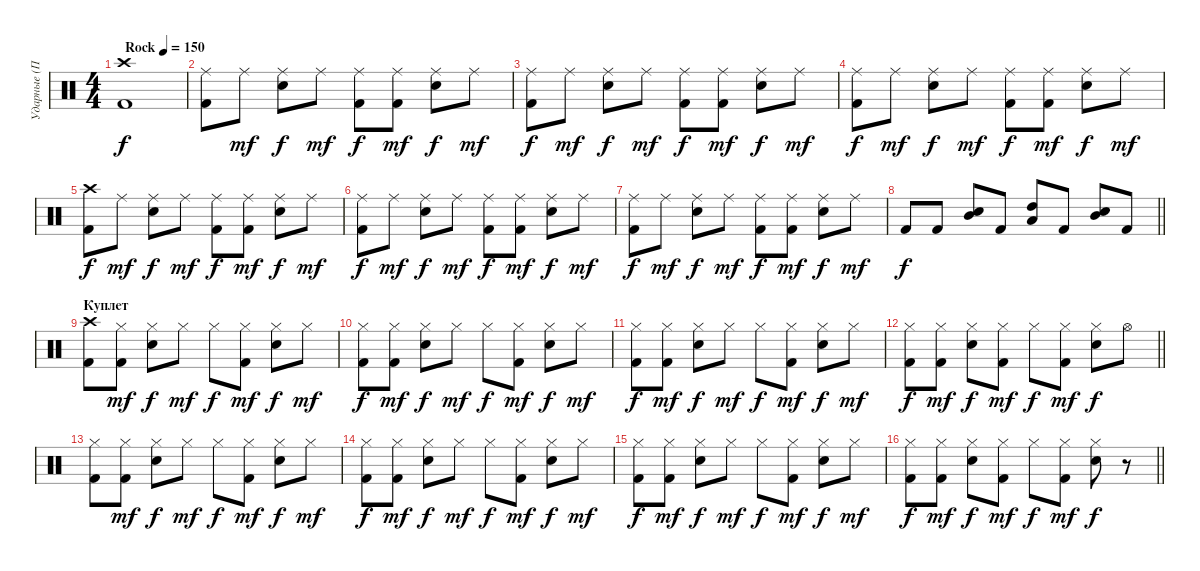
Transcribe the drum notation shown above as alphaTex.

\track ("Ударные (Поручик)" "Ударные (П") {instrument percussion}
\staff {score}
\articulation defaults
\ts (4 4)
\tempo (150 "Rock")
\clef neutral
\ks c
("Crash high (hit)" "Kick (hit) 2").1{dy f} |
("Ride (middle)" "Kick (hit) 2").8 "Ride (middle)".8{dy mf} ("Ride (middle)" "Snare (hit) 2").8{dy f} "Ride (middle)".8{dy mf} ("Ride (middle)" "Kick (hit) 2").8{dy f} ("Ride (middle)" "Kick (hit) 2").8{dy mf} ("Ride (middle)" "Snare (hit) 2").8{dy f} "Ride (middle)".8{dy mf} |
("Ride (middle)" "Kick (hit) 2").8{dy f} "Ride (middle)".8{dy mf} ("Ride (middle)" "Snare (hit) 2").8{dy f} "Ride (middle)".8{dy mf} ("Ride (middle)" "Kick (hit) 2").8{dy f} ("Ride (middle)" "Kick (hit) 2").8{dy mf} ("Ride (middle)" "Snare (hit) 2").8{dy f} "Ride (middle)".8{dy mf} |
("Ride (middle)" "Kick (hit) 2").8{dy f} "Ride (middle)".8{dy mf} ("Ride (middle)" "Snare (hit) 2").8{dy f} "Ride (middle)".8{dy mf} ("Ride (middle)" "Kick (hit) 2").8{dy f} ("Ride (middle)" "Kick (hit) 2").8{dy mf} ("Ride (middle)" "Snare (hit) 2").8{dy f} "Ride (middle)".8{dy mf} |
("Crash high (hit)" "Kick (hit) 2").8{dy f} "Ride (middle)".8{dy mf} ("Ride (middle)" "Snare (hit) 2").8{dy f} "Ride (middle)".8{dy mf} ("Ride (middle)" "Kick (hit) 2").8{dy f} ("Ride (middle)" "Kick (hit) 2").8{dy mf} ("Ride (middle)" "Snare (hit) 2").8{dy f} "Ride (middle)".8{dy mf} |
("Ride (middle)" "Kick (hit) 2").8{dy f} "Ride (middle)".8{dy mf} ("Ride (middle)" "Snare (hit) 2").8{dy f} "Ride (middle)".8{dy mf} ("Ride (middle)" "Kick (hit) 2").8{dy f} ("Ride (middle)" "Kick (hit) 2").8{dy mf} ("Ride (middle)" "Snare (hit) 2").8{dy f} "Ride (middle)".8{dy mf} |
("Ride (middle)" "Kick (hit) 2").8{dy f} "Ride (middle)".8{dy mf} ("Ride (middle)" "Snare (hit) 2").8{dy f} "Ride (middle)".8{dy mf} ("Ride (middle)" "Kick (hit) 2").8{dy f} ("Ride (middle)" "Kick (hit) 2").8{dy mf} ("Ride (middle)" "Snare (hit) 2").8{dy f} "Ride (middle)".8{dy mf} |
\barLineRight lightlight "Kick (hit) 2".8{dy f} "Kick (hit) 2".8
("Mid Tom (hit)" "Snare (hit) 2").8 "Kick (hit) 2".8 ("High Tom (hit)" "Low Tom (hit)").8 "Kick (hit) 2".8 ("Mid Tom (hit)" "Snare (hit) 2").8 "Kick (hit) 2".8 |
\section ("" "Куплет")
("Crash high (hit)" "Kick (hit) 2").8 ("Hi-Hat (closed)" "Kick (hit) 2").8{dy mf} ("Hi-Hat (closed)" "Snare (hit) 2").8{dy f} "Hi-Hat (closed)".8{dy mf} "Hi-Hat (closed)".8{dy f} ("Hi-Hat (closed)" "Kick (hit) 2").8{dy mf} ("Hi-Hat (closed)" "Snare (hit) 2").8{dy f} "Hi-Hat (closed)".8{dy mf} |
("Hi-Hat (closed)" "Kick (hit) 2").8{dy f} ("Hi-Hat (closed)" "Kick (hit) 2").8{dy mf} ("Hi-Hat (closed)" "Snare (hit) 2").8{dy f} "Hi-Hat (closed)".8{dy mf} "Hi-Hat (closed)".8{dy f} ("Hi-Hat (closed)" "Kick (hit) 2").8{dy mf} ("Hi-Hat (closed)" "Snare (hit) 2").8{dy f} "Hi-Hat (closed)".8{dy mf} |
("Hi-Hat (closed)" "Kick (hit) 2").8{dy f} ("Hi-Hat (closed)" "Kick (hit) 2").8{dy mf} ("Hi-Hat (closed)" "Snare (hit) 2").8{dy f} "Hi-Hat (closed)".8{dy mf} "Hi-Hat (closed)".8{dy f} ("Hi-Hat (closed)" "Kick (hit) 2").8{dy mf} ("Hi-Hat (closed)" "Snare (hit) 2").8{dy f} "Hi-Hat (closed)".8{dy mf} |
\barLineRight lightlight
("Hi-Hat (closed)" "Kick (hit) 2").8{dy f} ("Hi-Hat (closed)" "Kick (hit) 2").8{dy mf} ("Hi-Hat (closed)" "Snare (hit) 2").8{dy f} ("Hi-Hat (closed)" "Kick (hit) 2").8{dy mf} "Hi-Hat (closed)".8{dy f} ("Hi-Hat (closed)" "Kick (hit) 2").8{dy mf} ("Hi-Hat (closed)" "Snare (hit) 2").8{dy f} "Hi-Hat (open)".8 |
("Hi-Hat (closed)" "Kick (hit) 2").8 ("Hi-Hat (closed)" "Kick (hit) 2").8{dy mf} ("Hi-Hat (closed)" "Snare (hit) 2").8{dy f} "Hi-Hat (closed)".8{dy mf} "Hi-Hat (closed)".8{dy f} ("Hi-Hat (closed)" "Kick (hit) 2").8{dy mf} ("Hi-Hat (closed)" "Snare (hit) 2").8{dy f} "Hi-Hat (closed)".8{dy mf} |
("Hi-Hat (closed)" "Kick (hit) 2").8{dy f} ("Hi-Hat (closed)" "Kick (hit) 2").8{dy mf} ("Hi-Hat (closed)" "Snare (hit) 2").8{dy f} "Hi-Hat (closed)".8{dy mf} "Hi-Hat (closed)".8{dy f} ("Hi-Hat (closed)" "Kick (hit) 2").8{dy mf} ("Hi-Hat (closed)" "Snare (hit) 2").8{dy f} "Hi-Hat (closed)".8{dy mf} |
("Hi-Hat (closed)" "Kick (hit) 2").8{dy f} ("Hi-Hat (closed)" "Kick (hit) 2").8{dy mf} ("Hi-Hat (closed)" "Snare (hit) 2").8{dy f} "Hi-Hat (closed)".8{dy mf} "Hi-Hat (closed)".8{dy f} ("Hi-Hat (closed)" "Kick (hit) 2").8{dy mf} ("Hi-Hat (closed)" "Snare (hit) 2").8{dy f} "Hi-Hat (closed)".8{dy mf} |
\barLineRight lightlight
("Hi-Hat (closed)" "Kick (hit) 2").8{dy f} ("Hi-Hat (closed)" "Kick (hit) 2").8{dy mf} ("Hi-Hat (closed)" "Snare (hit) 2").8{dy f} ("Hi-Hat (closed)" "Kick (hit) 2").8{dy mf} "Hi-Hat (closed)".8{dy f} ("Hi-Hat (closed)" "Kick (hit) 2").8{dy mf} ("Hi-Hat (closed)" "Snare (hit) 2").8{dy f} r.8
